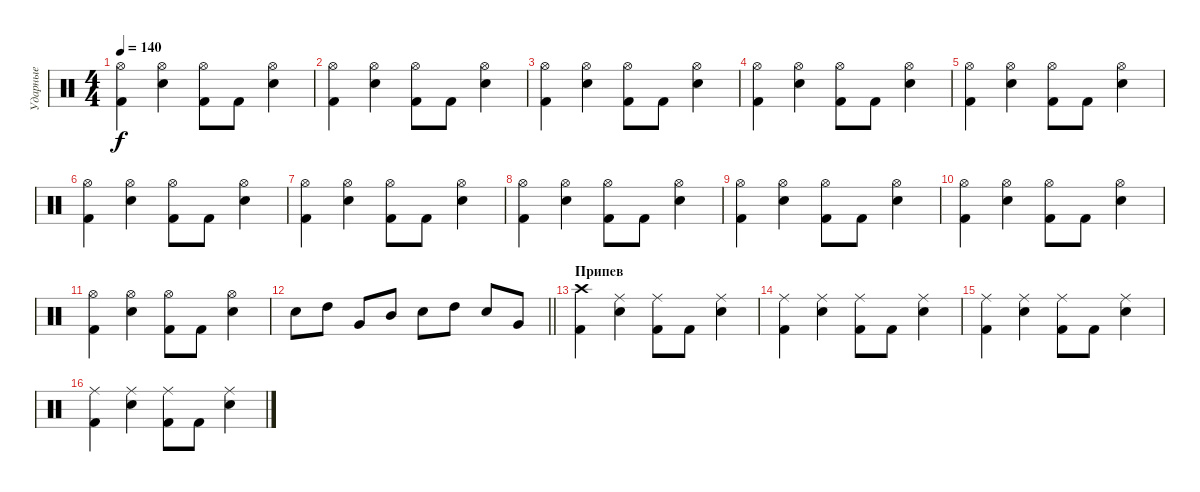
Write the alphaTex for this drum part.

\track ("Ударные" "Ударные") {instrument percussion}
\staff {score}
\articulation defaults
\ts (4 4)
\tempo 140
\clef neutral
\ks c
("Hi-Hat (open)" "Kick (hit) 2").4{dy f} ("Hi-Hat (open)" "Electric Snare (hit)").4 ("Hi-Hat (open)" "Kick (hit) 2").8 "Kick (hit) 2".8 ("Hi-Hat (open)" "Electric Snare (hit)").4 |
("Hi-Hat (open)" "Kick (hit) 2").4 ("Hi-Hat (open)" "Electric Snare (hit)").4 ("Hi-Hat (open)" "Kick (hit) 2").8 "Kick (hit) 2".8 ("Hi-Hat (open)" "Electric Snare (hit)").4 |
("Hi-Hat (open)" "Kick (hit) 2").4 ("Hi-Hat (open)" "Electric Snare (hit)").4 ("Hi-Hat (open)" "Kick (hit) 2").8 "Kick (hit) 2".8 ("Hi-Hat (open)" "Electric Snare (hit)").4 |
("Hi-Hat (open)" "Kick (hit) 2").4 ("Hi-Hat (open)" "Electric Snare (hit)").4 ("Hi-Hat (open)" "Kick (hit) 2").8 "Kick (hit) 2".8 ("Hi-Hat (open)" "Electric Snare (hit)").4 |
("Hi-Hat (open)" "Kick (hit) 2").4 ("Hi-Hat (open)" "Electric Snare (hit)").4 ("Hi-Hat (open)" "Kick (hit) 2").8 "Kick (hit) 2".8 ("Hi-Hat (open)" "Electric Snare (hit)").4 |
("Hi-Hat (open)" "Kick (hit) 2").4 ("Hi-Hat (open)" "Electric Snare (hit)").4 ("Hi-Hat (open)" "Kick (hit) 2").8 "Kick (hit) 2".8 ("Hi-Hat (open)" "Electric Snare (hit)").4 |
("Hi-Hat (open)" "Kick (hit) 2").4 ("Hi-Hat (open)" "Electric Snare (hit)").4 ("Hi-Hat (open)" "Kick (hit) 2").8 "Kick (hit) 2".8 ("Hi-Hat (open)" "Electric Snare (hit)").4 |
("Hi-Hat (open)" "Kick (hit) 2").4 ("Hi-Hat (open)" "Electric Snare (hit)").4 ("Hi-Hat (open)" "Kick (hit) 2").8 "Kick (hit) 2".8 ("Hi-Hat (open)" "Electric Snare (hit)").4 |
("Hi-Hat (open)" "Kick (hit) 2").4 ("Hi-Hat (open)" "Electric Snare (hit)").4 ("Hi-Hat (open)" "Kick (hit) 2").8 "Kick (hit) 2".8 ("Hi-Hat (open)" "Electric Snare (hit)").4 |
("Hi-Hat (open)" "Kick (hit) 2").4 ("Hi-Hat (open)" "Electric Snare (hit)").4 ("Hi-Hat (open)" "Kick (hit) 2").8 "Kick (hit) 2".8 ("Hi-Hat (open)" "Electric Snare (hit)").4 |
("Hi-Hat (open)" "Kick (hit) 2").4 ("Hi-Hat (open)" "Electric Snare (hit)").4 ("Hi-Hat (open)" "Kick (hit) 2").8 "Kick (hit) 2".8 ("Hi-Hat (open)" "Electric Snare (hit)").4 |
\barLineRight lightlight "Electric Snare (hit)".8 "High Tom (hit)".8 "Very Low Tom (hit)".8 "Mid Tom (hit)".8 "Electric Snare (hit)".8 "High Tom (hit)".8 "Electric Snare (hit)".8 "Very Low Tom (hit)".8
|
\section ("" "Припев")
("Crash high (hit)" "Kick (hit) 2").4 ("Ride (middle)" "Electric Snare (hit)").4 ("Ride (middle)" "Kick (hit) 2").8 "Kick (hit) 2".8 ("Ride (middle)" "Electric Snare (hit)").4 |
("Ride (middle)" "Kick (hit) 2").4 ("Ride (middle)" "Electric Snare (hit)").4 ("Ride (middle)" "Kick (hit) 2").8 "Kick (hit) 2".8 ("Ride (middle)" "Electric Snare (hit)").4 |
("Ride (middle)" "Kick (hit) 2").4 ("Ride (middle)" "Electric Snare (hit)").4 ("Ride (middle)" "Kick (hit) 2").8 "Kick (hit) 2".8 ("Ride (middle)" "Electric Snare (hit)").4 |
("Ride (middle)" "Kick (hit) 2").4 ("Ride (middle)" "Electric Snare (hit)").4 ("Ride (middle)" "Kick (hit) 2").8 "Kick (hit) 2".8 ("Ride (middle)" "Electric Snare (hit)").4
